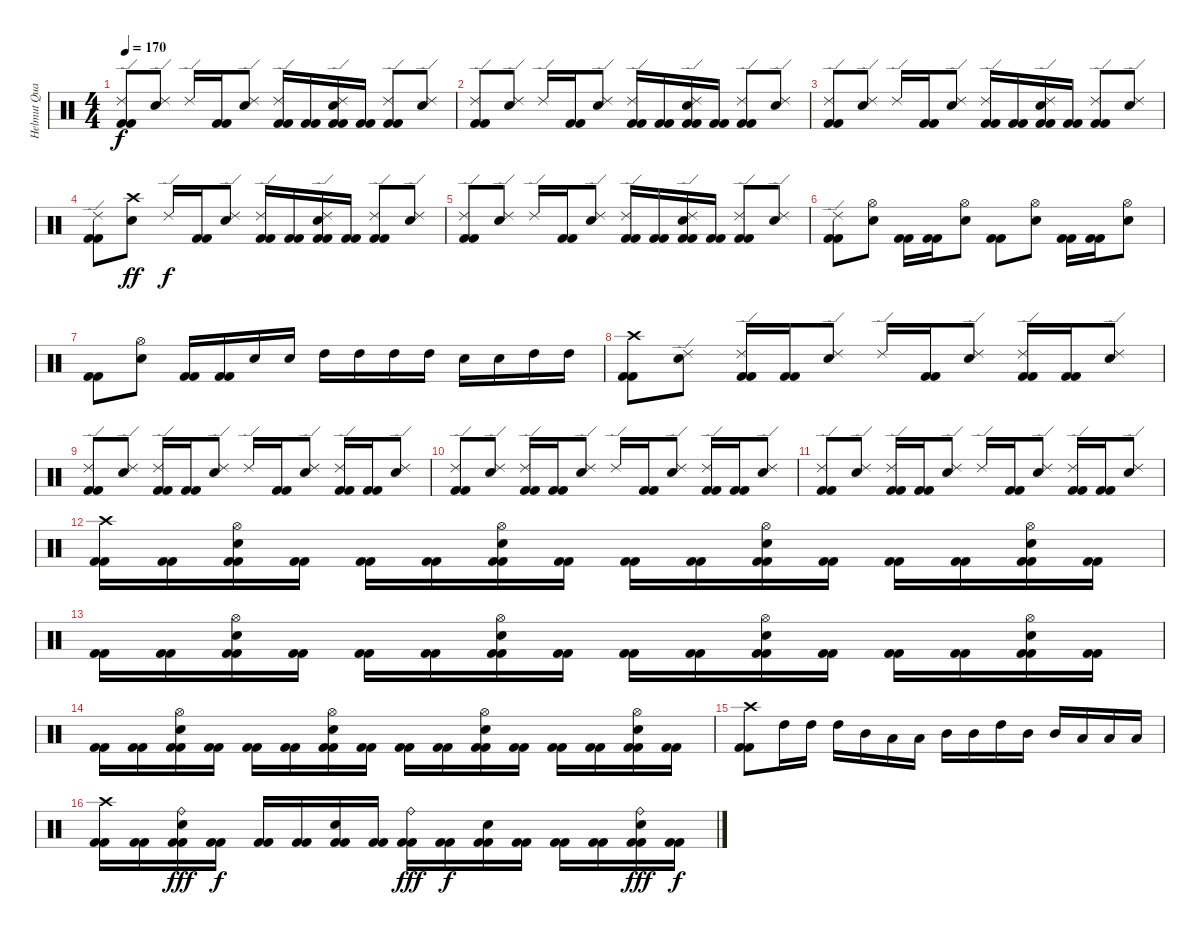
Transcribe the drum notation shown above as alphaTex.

\track ("Helmut Quacken" "Helmut Qua") {instrument percussion}
\staff {score}
\articulation defaults
\ts (4 4)
\tempo 170
\clef neutral
\ks c
("Ride (edge) 2" "Kick (hit) 2" "Kick (hit) 2").8{dy f} ("Ride (edge) 2" "Electric Snare (hit)").8 "Ride (edge) 2".16 ("Kick (hit) 2" "Kick (hit) 2").16 ("Ride (edge) 2" "Electric Snare (hit)").8 ("Ride (edge) 2" "Kick (hit) 2" "Kick (hit) 2").16 ("Kick (hit) 2" "Kick (hit) 2").16 ("Ride (edge) 2" "Electric Snare (hit)" "Kick (hit) 2" "Kick (hit) 2").16 ("Kick (hit) 2" "Kick (hit) 2").16 ("Ride (edge) 2" "Kick (hit) 2" "Kick (hit) 2").8 ("Ride (edge) 2" "Electric Snare (hit)").8 |
("Ride (edge) 2" "Kick (hit) 2" "Kick (hit) 2").8 ("Ride (edge) 2" "Electric Snare (hit)").8 "Ride (edge) 2".16 ("Kick (hit) 2" "Kick (hit) 2").16 ("Ride (edge) 2" "Electric Snare (hit)").8 ("Ride (edge) 2" "Kick (hit) 2" "Kick (hit) 2").16 ("Kick (hit) 2" "Kick (hit) 2").16 ("Ride (edge) 2" "Electric Snare (hit)" "Kick (hit) 2" "Kick (hit) 2").16 ("Kick (hit) 2" "Kick (hit) 2").16 ("Ride (edge) 2" "Kick (hit) 2" "Kick (hit) 2").8 ("Ride (edge) 2" "Electric Snare (hit)").8 |
("Ride (edge) 2" "Kick (hit) 2" "Kick (hit) 2").8 ("Ride (edge) 2" "Electric Snare (hit)").8 "Ride (edge) 2".16 ("Kick (hit) 2" "Kick (hit) 2").16 ("Ride (edge) 2" "Electric Snare (hit)").8 ("Ride (edge) 2" "Kick (hit) 2" "Kick (hit) 2").16 ("Kick (hit) 2" "Kick (hit) 2").16 ("Ride (edge) 2" "Electric Snare (hit)" "Kick (hit) 2" "Kick (hit) 2").16 ("Kick (hit) 2" "Kick (hit) 2").16 ("Ride (edge) 2" "Kick (hit) 2" "Kick (hit) 2").8 ("Ride (edge) 2" "Electric Snare (hit)").8 |
("Ride (edge) 2" "Kick (hit) 2" "Kick (hit) 2").8 ("Crash high (hit)" "Electric Snare (hit)").8{dy ff} "Ride (edge) 2".16{dy f} ("Kick (hit) 2" "Kick (hit) 2").16 ("Ride (edge) 2" "Electric Snare (hit)").8 ("Ride (edge) 2" "Kick (hit) 2" "Kick (hit) 2").16 ("Kick (hit) 2" "Kick (hit) 2").16 ("Ride (edge) 2" "Electric Snare (hit)" "Kick (hit) 2" "Kick (hit) 2").16 ("Kick (hit) 2" "Kick (hit) 2").16 ("Ride (edge) 2" "Kick (hit) 2" "Kick (hit) 2").8 ("Ride (edge) 2" "Electric Snare (hit)").8 |
("Ride (edge) 2" "Kick (hit) 2" "Kick (hit) 2").8 ("Ride (edge) 2" "Electric Snare (hit)").8 "Ride (edge) 2".16 ("Kick (hit) 2" "Kick (hit) 2").16 ("Ride (edge) 2" "Electric Snare (hit)").8 ("Ride (edge) 2" "Kick (hit) 2" "Kick (hit) 2").16 ("Kick (hit) 2" "Kick (hit) 2").16 ("Ride (edge) 2" "Electric Snare (hit)" "Kick (hit) 2" "Kick (hit) 2").16 ("Kick (hit) 2" "Kick (hit) 2").16 ("Ride (edge) 2" "Kick (hit) 2" "Kick (hit) 2").8 ("Ride (edge) 2" "Electric Snare (hit)").8 |
("Ride (edge) 2" "Kick (hit) 2" "Kick (hit) 2").8 ("Hi-Hat (open)" "Electric Snare (hit)").8 ("Kick (hit) 2" "Kick (hit) 2").16 ("Kick (hit) 2" "Kick (hit) 2").16 ("Hi-Hat (open)" "Electric Snare (hit)").8 ("Kick (hit) 2" "Kick (hit) 2").8 ("Hi-Hat (open)" "Electric Snare (hit)").8 ("Kick (hit) 2" "Kick (hit) 2").16 ("Kick (hit) 2" "Kick (hit) 2").16 ("Hi-Hat (open)" "Electric Snare (hit)").8 |
("Kick (hit) 2" "Kick (hit) 2").8 ("Hi-Hat (open)" "Electric Snare (hit)").8 ("Kick (hit) 2" "Kick (hit) 2").16 ("Kick (hit) 2" "Kick (hit) 2").16 "Electric Snare (hit)".16 "Electric Snare (hit)".16 "High Tom (hit)".16 "High Tom (hit)".16 "High Tom (hit)".16 "High Tom (hit)".16 "Electric Snare (hit)".16 "Electric Snare (hit)".16 "High Tom (hit)".16 "High Tom (hit)".16 |
("Crash high (hit)" "Kick (hit) 2" "Kick (hit) 2").8 ("Ride (edge) 2" "Electric Snare (hit)").8 ("Ride (edge) 2" "Kick (hit) 2" "Kick (hit) 2").16 ("Kick (hit) 2" "Kick (hit) 2").16 ("Ride (edge) 2" "Electric Snare (hit)").8 "Ride (edge) 2".16 ("Kick (hit) 2" "Kick (hit) 2").16 ("Ride (edge) 2" "Electric Snare (hit)").8 ("Ride (edge) 2" "Kick (hit) 2" "Kick (hit) 2").16 ("Kick (hit) 2" "Kick (hit) 2").16 ("Ride (edge) 2" "Electric Snare (hit)").8 |
("Ride (edge) 2" "Kick (hit) 2" "Kick (hit) 2").8 ("Ride (edge) 2" "Electric Snare (hit)").8 ("Ride (edge) 2" "Kick (hit) 2" "Kick (hit) 2").16 ("Kick (hit) 2" "Kick (hit) 2").16 ("Ride (edge) 2" "Electric Snare (hit)").8 "Ride (edge) 2".16 ("Kick (hit) 2" "Kick (hit) 2").16 ("Ride (edge) 2" "Electric Snare (hit)").8 ("Ride (edge) 2" "Kick (hit) 2" "Kick (hit) 2").16 ("Kick (hit) 2" "Kick (hit) 2").16 ("Ride (edge) 2" "Electric Snare (hit)").8 |
("Ride (edge) 2" "Kick (hit) 2" "Kick (hit) 2").8 ("Ride (edge) 2" "Electric Snare (hit)").8 ("Ride (edge) 2" "Kick (hit) 2" "Kick (hit) 2").16 ("Kick (hit) 2" "Kick (hit) 2").16 ("Ride (edge) 2" "Electric Snare (hit)").8 "Ride (edge) 2".16 ("Kick (hit) 2" "Kick (hit) 2").16 ("Ride (edge) 2" "Electric Snare (hit)").8 ("Ride (edge) 2" "Kick (hit) 2" "Kick (hit) 2").16 ("Kick (hit) 2" "Kick (hit) 2").16 ("Ride (edge) 2" "Electric Snare (hit)").8 |
("Ride (edge) 2" "Kick (hit) 2" "Kick (hit) 2").8 ("Ride (edge) 2" "Electric Snare (hit)").8 ("Ride (edge) 2" "Kick (hit) 2" "Kick (hit) 2").16 ("Kick (hit) 2" "Kick (hit) 2").16 ("Ride (edge) 2" "Electric Snare (hit)").8 "Ride (edge) 2".16 ("Kick (hit) 2" "Kick (hit) 2").16 ("Ride (edge) 2" "Electric Snare (hit)").8 ("Ride (edge) 2" "Kick (hit) 2" "Kick (hit) 2").16 ("Kick (hit) 2" "Kick (hit) 2").16 ("Ride (edge) 2" "Electric Snare (hit)").8 |
("Crash high (hit)" "Kick (hit) 2" "Kick (hit) 2").16 ("Kick (hit) 2" "Kick (hit) 2").16 ("Hi-Hat (open)" "Electric Snare (hit)" "Kick (hit) 2" "Kick (hit) 2").16 ("Kick (hit) 2" "Kick (hit) 2").16 ("Kick (hit) 2" "Kick (hit) 2").16 ("Kick (hit) 2" "Kick (hit) 2").16 ("Hi-Hat (open)" "Electric Snare (hit)" "Kick (hit) 2" "Kick (hit) 2").16 ("Kick (hit) 2" "Kick (hit) 2").16 ("Kick (hit) 2" "Kick (hit) 2").16 ("Kick (hit) 2" "Kick (hit) 2").16 ("Hi-Hat (open)" "Electric Snare (hit)" "Kick (hit) 2" "Kick (hit) 2").16 ("Kick (hit) 2" "Kick (hit) 2").16 ("Kick (hit) 2" "Kick (hit) 2").16 ("Kick (hit) 2" "Kick (hit) 2").16 ("Hi-Hat (open)" "Electric Snare (hit)" "Kick (hit) 2" "Kick (hit) 2").16 ("Kick (hit) 2" "Kick (hit) 2").16 |
("Kick (hit) 2" "Kick (hit) 2").16 ("Kick (hit) 2" "Kick (hit) 2").16 ("Hi-Hat (open)" "Electric Snare (hit)" "Kick (hit) 2" "Kick (hit) 2").16 ("Kick (hit) 2" "Kick (hit) 2").16 ("Kick (hit) 2" "Kick (hit) 2").16 ("Kick (hit) 2" "Kick (hit) 2").16 ("Hi-Hat (open)" "Electric Snare (hit)" "Kick (hit) 2" "Kick (hit) 2").16 ("Kick (hit) 2" "Kick (hit) 2").16 ("Kick (hit) 2" "Kick (hit) 2").16 ("Kick (hit) 2" "Kick (hit) 2").16 ("Hi-Hat (open)" "Electric Snare (hit)" "Kick (hit) 2" "Kick (hit) 2").16 ("Kick (hit) 2" "Kick (hit) 2").16 ("Kick (hit) 2" "Kick (hit) 2").16 ("Kick (hit) 2" "Kick (hit) 2").16 ("Hi-Hat (open)" "Electric Snare (hit)" "Kick (hit) 2" "Kick (hit) 2").16 ("Kick (hit) 2" "Kick (hit) 2").16 |
("Kick (hit) 2" "Kick (hit) 2").16 ("Kick (hit) 2" "Kick (hit) 2").16 ("Hi-Hat (open)" "Electric Snare (hit)" "Kick (hit) 2" "Kick (hit) 2").16 ("Kick (hit) 2" "Kick (hit) 2").16 ("Kick (hit) 2" "Kick (hit) 2").16 ("Kick (hit) 2" "Kick (hit) 2").16 ("Hi-Hat (open)" "Electric Snare (hit)" "Kick (hit) 2" "Kick (hit) 2").16 ("Kick (hit) 2" "Kick (hit) 2").16 ("Kick (hit) 2" "Kick (hit) 2").16 ("Kick (hit) 2" "Kick (hit) 2").16 ("Hi-Hat (open)" "Electric Snare (hit)" "Kick (hit) 2" "Kick (hit) 2").16 ("Kick (hit) 2" "Kick (hit) 2").16 ("Kick (hit) 2" "Kick (hit) 2").16 ("Kick (hit) 2" "Kick (hit) 2").16 ("Hi-Hat (open)" "Electric Snare (hit)" "Kick (hit) 2" "Kick (hit) 2").16 ("Kick (hit) 2" "Kick (hit) 2").16 |
("Crash high (hit)" "Kick (hit) 2" "Kick (hit) 2").8 "High Tom (hit)".16 "High Tom (hit)".16 "High Tom (hit)".16 "Mid Tom (hit)".16 "Low Tom (hit)".16 "Low Tom (hit)".16 "Mid Tom (hit)".16 "Mid Tom (hit)".16 "High Tom (hit)".16 "Mid Tom (hit)".16 "Mid Tom (hit)".16 "Low Tom (hit)".16 "Low Tom (hit)".16 "Low Tom (hit)".16 |
("Crash high (hit)" "Kick (hit) 2" "Kick (hit) 2").16 ("Kick (hit) 2" "Kick (hit) 2").16 ("Ride (bell)" "Electric Snare (hit)" "Kick (hit) 2" "Kick (hit) 2").16{dy fff} ("Kick (hit) 2" "Kick (hit) 2").16{dy f} ("Kick (hit) 2" "Kick (hit) 2").16 ("Kick (hit) 2" "Kick (hit) 2").16 ("Electric Snare (hit)" "Kick (hit) 2" "Kick (hit) 2").16 ("Kick (hit) 2" "Kick (hit) 2").16 ("Ride (bell)" "Kick (hit) 2" "Kick (hit) 2").16{dy fff} ("Kick (hit) 2" "Kick (hit) 2").16{dy f} ("Electric Snare (hit)" "Kick (hit) 2" "Kick (hit) 2").16 ("Kick (hit) 2" "Kick (hit) 2").16 ("Kick (hit) 2" "Kick (hit) 2").16 ("Kick (hit) 2" "Kick (hit) 2").16 ("Ride (bell)" "Electric Snare (hit)" "Kick (hit) 2" "Kick (hit) 2").16{dy fff} ("Kick (hit) 2" "Kick (hit) 2").16{dy f}
